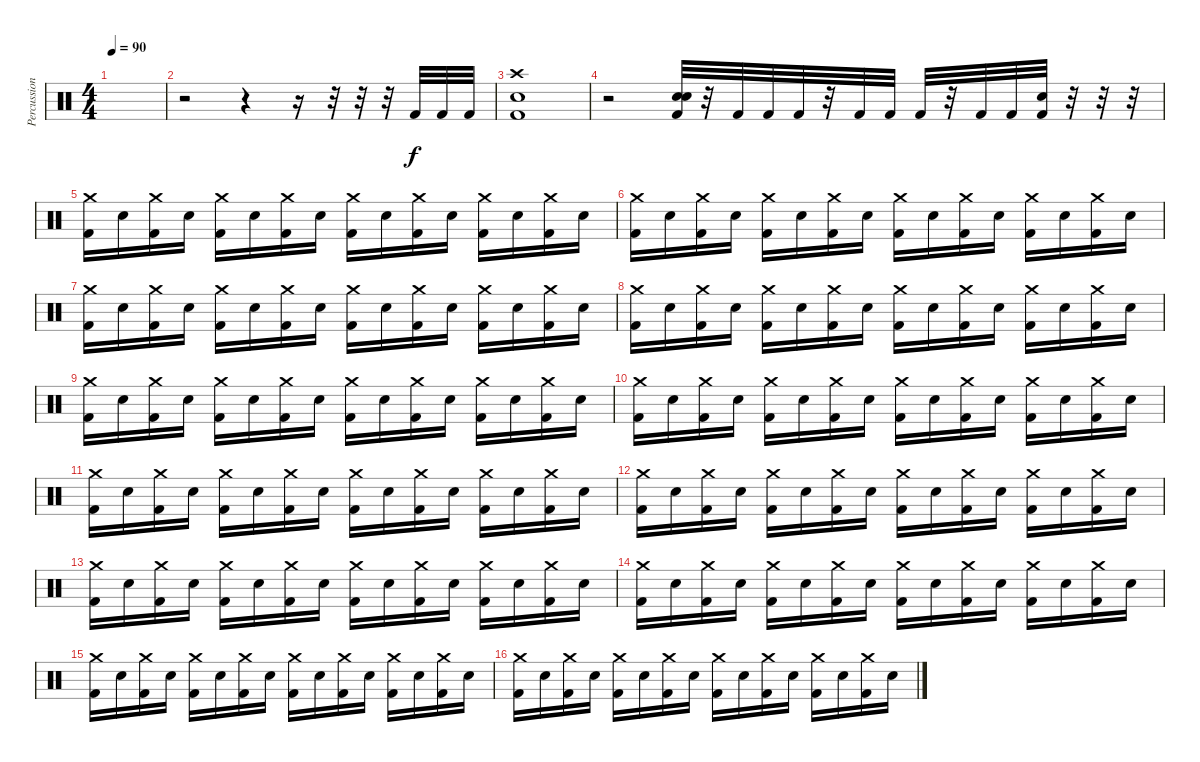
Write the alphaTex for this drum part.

\track ("Percussioni" "Percussion") {instrument percussion}
\staff {score}
\articulation defaults
\ts (4 4)
\tempo 90
\clef neutral
\ks c
|
r.2 r.4 r.16 r.32 r.32 r.32 "Kick (hit) 2".32 "Kick (hit) 2".32 "Kick (hit) 2".32 |
("Kick (hit) 2" "Electric Snare (hit)" "Crash high (hit)").1 |
r.2 ("Kick (hit) 2" "Electric Snare (hit)" "Electric Snare (hit)").32 r.32 "Kick (hit) 2".32 "Kick (hit) 2".32 "Kick (hit) 2".32 r.32 "Kick (hit) 2".32 "Kick (hit) 2".32 "Kick (hit) 2".32 r.32 "Kick (hit) 2".32 "Kick (hit) 2".32 ("Kick (hit) 2" "Electric Snare (hit)").32 r.32 r.32 r.32 |
("Kick (hit) 2" "Crash medium (hit)").16 "Electric Snare (hit)".16 ("Kick (hit) 2" "Crash medium (hit)").16 "Electric Snare (hit)".16 ("Kick (hit) 2" "Crash medium (hit)").16 "Electric Snare (hit)".16 ("Kick (hit) 2" "Crash medium (hit)").16 "Electric Snare (hit)".16 ("Kick (hit) 2" "Crash medium (hit)").16 "Electric Snare (hit)".16 ("Kick (hit) 2" "Crash medium (hit)").16 "Electric Snare (hit)".16 ("Kick (hit) 2" "Crash medium (hit)").16 "Electric Snare (hit)".16 ("Kick (hit) 2" "Crash medium (hit)").16 "Electric Snare (hit)".16 |
("Kick (hit) 2" "Crash medium (hit)").16 "Electric Snare (hit)".16 ("Kick (hit) 2" "Crash medium (hit)").16 "Electric Snare (hit)".16 ("Kick (hit) 2" "Crash medium (hit)").16 "Electric Snare (hit)".16 ("Kick (hit) 2" "Crash medium (hit)").16 "Electric Snare (hit)".16 ("Kick (hit) 2" "Crash medium (hit)").16 "Electric Snare (hit)".16 ("Kick (hit) 2" "Crash medium (hit)").16 "Electric Snare (hit)".16 ("Kick (hit) 2" "Crash medium (hit)").16 "Electric Snare (hit)".16 ("Kick (hit) 2" "Crash medium (hit)").16 "Electric Snare (hit)".16 |
("Kick (hit) 2" "Crash medium (hit)").16 "Electric Snare (hit)".16 ("Kick (hit) 2" "Crash medium (hit)").16 "Electric Snare (hit)".16 ("Kick (hit) 2" "Crash medium (hit)").16 "Electric Snare (hit)".16 ("Kick (hit) 2" "Crash medium (hit)").16 "Electric Snare (hit)".16 ("Kick (hit) 2" "Crash medium (hit)").16 "Electric Snare (hit)".16 ("Kick (hit) 2" "Crash medium (hit)").16 "Electric Snare (hit)".16 ("Kick (hit) 2" "Crash medium (hit)").16 "Electric Snare (hit)".16 ("Kick (hit) 2" "Crash medium (hit)").16 "Electric Snare (hit)".16 |
("Kick (hit) 2" "Crash medium (hit)").16 "Electric Snare (hit)".16 ("Kick (hit) 2" "Crash medium (hit)").16 "Electric Snare (hit)".16 ("Kick (hit) 2" "Crash medium (hit)").16 "Electric Snare (hit)".16 ("Kick (hit) 2" "Crash medium (hit)").16 "Electric Snare (hit)".16 ("Kick (hit) 2" "Crash medium (hit)").16 "Electric Snare (hit)".16 ("Kick (hit) 2" "Crash medium (hit)").16 "Electric Snare (hit)".16 ("Kick (hit) 2" "Crash medium (hit)").16 "Electric Snare (hit)".16 ("Kick (hit) 2" "Crash medium (hit)").16 "Electric Snare (hit)".16 |
("Kick (hit) 2" "Crash medium (hit)").16 "Electric Snare (hit)".16 ("Kick (hit) 2" "Crash medium (hit)").16 "Electric Snare (hit)".16 ("Kick (hit) 2" "Crash medium (hit)").16 "Electric Snare (hit)".16 ("Kick (hit) 2" "Crash medium (hit)").16 "Electric Snare (hit)".16 ("Kick (hit) 2" "Crash medium (hit)").16 "Electric Snare (hit)".16 ("Kick (hit) 2" "Crash medium (hit)").16 "Electric Snare (hit)".16 ("Kick (hit) 2" "Crash medium (hit)").16 "Electric Snare (hit)".16 ("Kick (hit) 2" "Crash medium (hit)").16 "Electric Snare (hit)".16 |
("Kick (hit) 2" "Crash medium (hit)").16 "Electric Snare (hit)".16 ("Kick (hit) 2" "Crash medium (hit)").16 "Electric Snare (hit)".16 ("Kick (hit) 2" "Crash medium (hit)").16 "Electric Snare (hit)".16 ("Kick (hit) 2" "Crash medium (hit)").16 "Electric Snare (hit)".16 ("Kick (hit) 2" "Crash medium (hit)").16 "Electric Snare (hit)".16 ("Kick (hit) 2" "Crash medium (hit)").16 "Electric Snare (hit)".16 ("Kick (hit) 2" "Crash medium (hit)").16 "Electric Snare (hit)".16 ("Kick (hit) 2" "Crash medium (hit)").16 "Electric Snare (hit)".16 |
("Kick (hit) 2" "Crash medium (hit)").16 "Electric Snare (hit)".16 ("Kick (hit) 2" "Crash medium (hit)").16 "Electric Snare (hit)".16 ("Kick (hit) 2" "Crash medium (hit)").16 "Electric Snare (hit)".16 ("Kick (hit) 2" "Crash medium (hit)").16 "Electric Snare (hit)".16 ("Kick (hit) 2" "Crash medium (hit)").16 "Electric Snare (hit)".16 ("Kick (hit) 2" "Crash medium (hit)").16 "Electric Snare (hit)".16 ("Kick (hit) 2" "Crash medium (hit)").16 "Electric Snare (hit)".16 ("Kick (hit) 2" "Crash medium (hit)").16 "Electric Snare (hit)".16 |
("Kick (hit) 2" "Crash medium (hit)").16 "Electric Snare (hit)".16 ("Kick (hit) 2" "Crash medium (hit)").16 "Electric Snare (hit)".16 ("Kick (hit) 2" "Crash medium (hit)").16 "Electric Snare (hit)".16 ("Kick (hit) 2" "Crash medium (hit)").16 "Electric Snare (hit)".16 ("Kick (hit) 2" "Crash medium (hit)").16 "Electric Snare (hit)".16 ("Kick (hit) 2" "Crash medium (hit)").16 "Electric Snare (hit)".16 ("Kick (hit) 2" "Crash medium (hit)").16 "Electric Snare (hit)".16 ("Kick (hit) 2" "Crash medium (hit)").16 "Electric Snare (hit)".16 |
("Kick (hit) 2" "Crash medium (hit)").16 "Electric Snare (hit)".16 ("Kick (hit) 2" "Crash medium (hit)").16 "Electric Snare (hit)".16 ("Kick (hit) 2" "Crash medium (hit)").16 "Electric Snare (hit)".16 ("Kick (hit) 2" "Crash medium (hit)").16 "Electric Snare (hit)".16 ("Kick (hit) 2" "Crash medium (hit)").16 "Electric Snare (hit)".16 ("Kick (hit) 2" "Crash medium (hit)").16 "Electric Snare (hit)".16 ("Kick (hit) 2" "Crash medium (hit)").16 "Electric Snare (hit)".16 ("Kick (hit) 2" "Crash medium (hit)").16 "Electric Snare (hit)".16 |
("Kick (hit) 2" "Crash medium (hit)").16 "Electric Snare (hit)".16 ("Kick (hit) 2" "Crash medium (hit)").16 "Electric Snare (hit)".16 ("Kick (hit) 2" "Crash medium (hit)").16 "Electric Snare (hit)".16 ("Kick (hit) 2" "Crash medium (hit)").16 "Electric Snare (hit)".16 ("Kick (hit) 2" "Crash medium (hit)").16 "Electric Snare (hit)".16 ("Kick (hit) 2" "Crash medium (hit)").16 "Electric Snare (hit)".16 ("Kick (hit) 2" "Crash medium (hit)").16 "Electric Snare (hit)".16 ("Kick (hit) 2" "Crash medium (hit)").16 "Electric Snare (hit)".16 |
("Kick (hit) 2" "Crash medium (hit)").16 "Electric Snare (hit)".16 ("Kick (hit) 2" "Crash medium (hit)").16 "Electric Snare (hit)".16 ("Kick (hit) 2" "Crash medium (hit)").16 "Electric Snare (hit)".16 ("Kick (hit) 2" "Crash medium (hit)").16 "Electric Snare (hit)".16 ("Kick (hit) 2" "Crash medium (hit)").16 "Electric Snare (hit)".16 ("Kick (hit) 2" "Crash medium (hit)").16 "Electric Snare (hit)".16 ("Kick (hit) 2" "Crash medium (hit)").16 "Electric Snare (hit)".16 ("Kick (hit) 2" "Crash medium (hit)").16 "Electric Snare (hit)".16 |
("Kick (hit) 2" "Crash medium (hit)").16 "Electric Snare (hit)".16 ("Kick (hit) 2" "Crash medium (hit)").16 "Electric Snare (hit)".16 ("Kick (hit) 2" "Crash medium (hit)").16 "Electric Snare (hit)".16 ("Kick (hit) 2" "Crash medium (hit)").16 "Electric Snare (hit)".16 ("Kick (hit) 2" "Crash medium (hit)").16 "Electric Snare (hit)".16 ("Kick (hit) 2" "Crash medium (hit)").16 "Electric Snare (hit)".16 ("Kick (hit) 2" "Crash medium (hit)").16 "Electric Snare (hit)".16 ("Kick (hit) 2" "Crash medium (hit)").16 "Electric Snare (hit)".16
